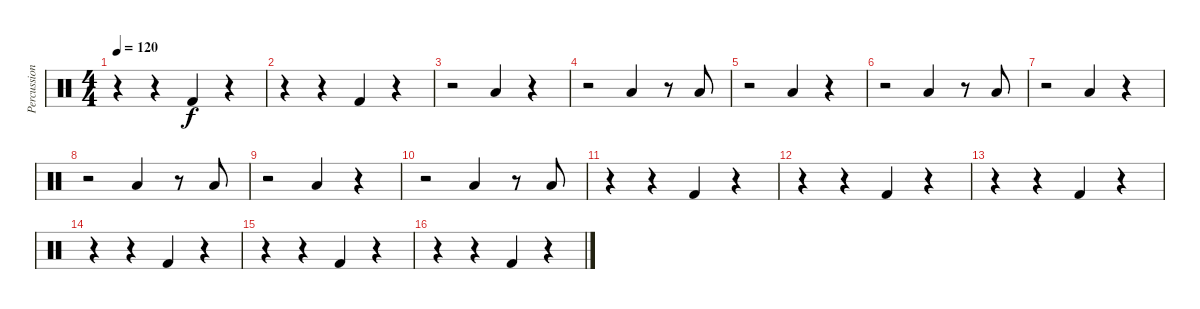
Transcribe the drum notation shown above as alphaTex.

\track ("Percussion II" "Percussion") {instrument percussion}
\staff {score}
\articulation defaults
\ts (4 4)
\tempo 120
\clef neutral
\ks aminor
r.4{dy f} r.4 "Kick (hit) 2".4 r.4 |
r.4 r.4 "Kick (hit) 2".4 r.4 |
r.2 "Low Floor Tom (hit)".4 r.4 |
r.2 "Low Floor Tom (hit)".4 r.8 "Low Tom (hit)".8 |
r.2 "Low Floor Tom (hit)".4 r.4 |
r.2 "Low Floor Tom (hit)".4 r.8 "Low Tom (hit)".8 |
r.2 "Low Floor Tom (hit)".4 r.4 |
r.2 "Low Floor Tom (hit)".4 r.8 "Low Tom (hit)".8 |
r.2 "Low Floor Tom (hit)".4 r.4 |
r.2 "Low Floor Tom (hit)".4 r.8 "Low Tom (hit)".8 |
r.4 r.4 "Kick (hit) 2".4 r.4 |
r.4 r.4 "Kick (hit) 2".4 r.4 |
r.4 r.4 "Kick (hit) 2".4 r.4 |
r.4 r.4 "Kick (hit) 2".4 r.4 |
r.4 r.4 "Kick (hit) 2".4 r.4 |
r.4 r.4 "Kick (hit) 2".4 r.4
